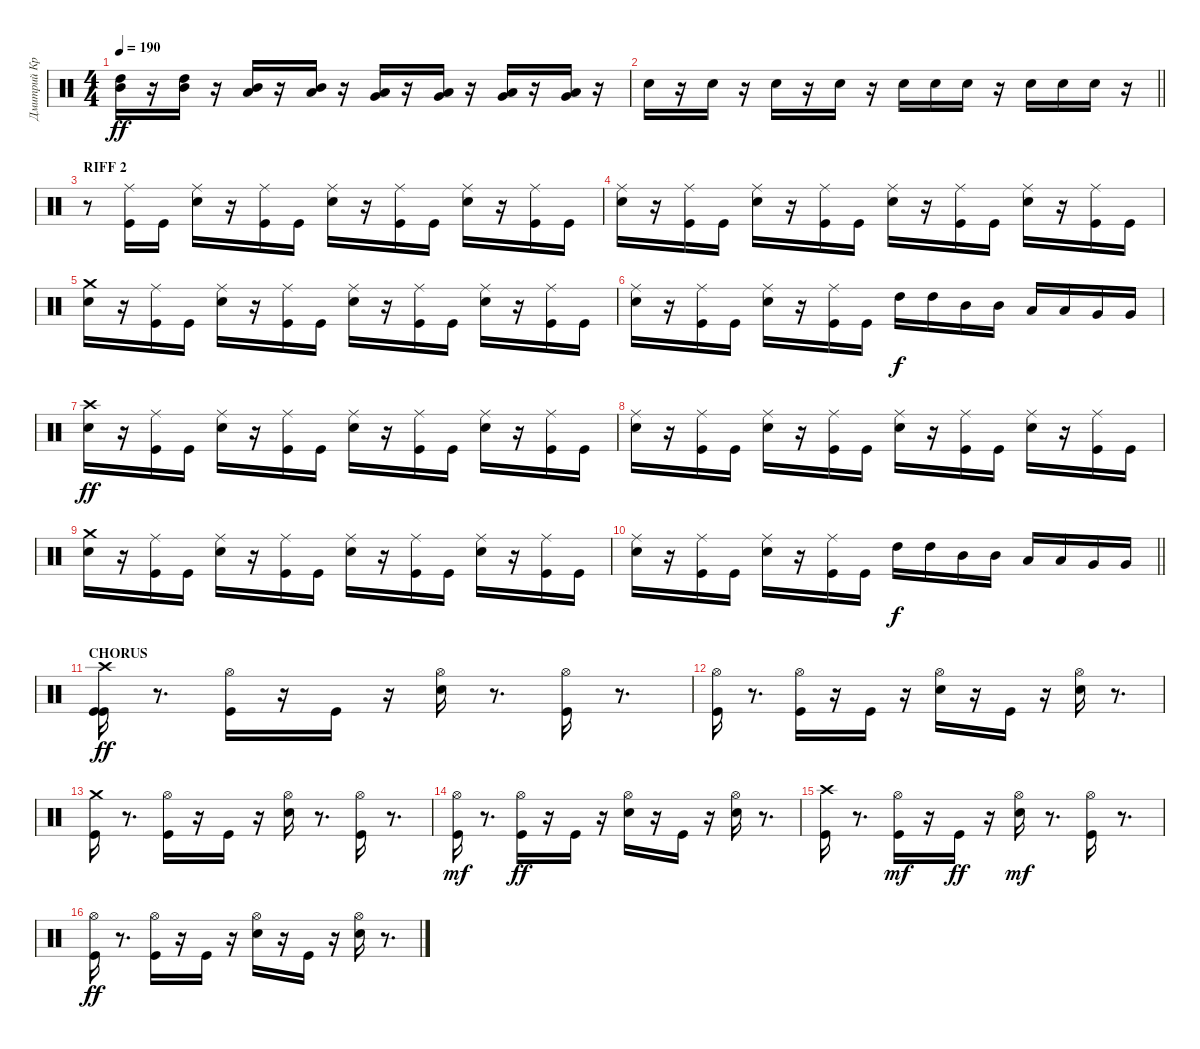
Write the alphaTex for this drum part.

\track ("Дмитрий Кривенков" "Дмитрий Кр") {instrument percussion}
\staff {score}
\articulation defaults
\ts (4 4)
\tempo 190
\clef neutral
\ks c
("Mid Tom (hit)" "High Tom (hit)").16{dy ff} r.16 ("Mid Tom (hit)" "High Tom (hit)").16 r.16 ("Low Tom (hit)" "Mid Tom (hit)").16 r.16 ("Mid Tom (hit)" "Low Tom (hit)").16 r.16 ("Very Low Tom (hit)" "Low Tom (hit)").16 r.16 ("Very Low Tom (hit)" "Low Tom (hit)").16 r.16 ("Very Low Tom (hit)" "Low Tom (hit)").16 r.16 ("Very Low Tom (hit)" "Low Tom (hit)").16 r.16 |
\barLineRight lightlight "Snare (hit) 2".16
r.16 "Snare (hit) 2".16 r.16 "Snare (hit) 2".16 r.16 "Snare (hit) 2".16 r.16 "Snare (hit) 2".16 "Snare (hit) 2".16 "Snare (hit) 2".16 r.16 "Snare (hit) 2".16 "Snare (hit) 2".16 "Snare (hit) 2".16 r.16 |
\section ("" "RIFF 2")
r.8 ("Ride (middle)" "Kick (hit)").16 "Kick (hit)".16 ("Ride (middle)" "Snare (hit) 2").16 r.16 ("Ride (middle)" "Kick (hit)").16 "Kick (hit)".16 ("Ride (middle)" "Snare (hit) 2").16 r.16 ("Kick (hit)" "Ride (middle)").16 "Kick (hit)".16 ("Ride (middle)" "Snare (hit) 2").16 r.16 ("Ride (middle)" "Kick (hit)").16 "Kick (hit)".16 |
("Snare (hit) 2" "Ride (middle)").16 r.16 ("Ride (middle)" "Kick (hit)").16 "Kick (hit)".16 ("Ride (middle)" "Snare (hit) 2").16 r.16 ("Ride (middle)" "Kick (hit)").16 "Kick (hit)".16 ("Ride (middle)" "Snare (hit) 2").16 r.16 ("Ride (middle)" "Kick (hit)").16 "Kick (hit)".16 ("Ride (middle)" "Snare (hit) 2").16 r.16 ("Ride (middle)" "Kick (hit)").16 "Kick (hit)".16 |
("Crash medium (hit)" "Snare (hit) 2").16 r.16 ("Ride (middle)" "Kick (hit)").16 "Kick (hit)".16 ("Ride (middle)" "Snare (hit) 2").16 r.16 ("Ride (middle)" "Kick (hit)").16 "Kick (hit)".16 ("Ride (middle)" "Snare (hit) 2").16 r.16 ("Ride (middle)" "Kick (hit)").16 "Kick (hit)".16 ("Ride (middle)" "Snare (hit) 2").16 r.16 ("Ride (middle)" "Kick (hit)").16 "Kick (hit)".16 |
("Ride (middle)" "Snare (hit) 2").16 r.16 ("Ride (middle)" "Kick (hit)").16 "Kick (hit)".16 ("Ride (middle)" "Snare (hit) 2").16 r.16 ("Ride (middle)" "Kick (hit)").16 "Kick (hit)".16 "High Tom (hit)".16{dy f} "High Tom (hit)".16 "Mid Tom (hit)".16 "Mid Tom (hit)".16 "Low Tom (hit)".16 "Low Tom (hit)".16 "Very Low Tom (hit)".16 "Very Low Tom (hit)".16 |
("Snare (hit) 2" "Crash high (hit)").16{dy ff} r.16 ("Ride (middle)" "Kick (hit)").16 "Kick (hit)".16 ("Ride (middle)" "Snare (hit) 2").16 r.16 ("Ride (middle)" "Kick (hit)").16 "Kick (hit)".16 ("Ride (middle)" "Snare (hit) 2").16 r.16 ("Kick (hit)" "Ride (middle)").16 "Kick (hit)".16 ("Ride (middle)" "Snare (hit) 2").16 r.16 ("Ride (middle)" "Kick (hit)").16 "Kick (hit)".16 |
("Snare (hit) 2" "Ride (middle)").16 r.16 ("Ride (middle)" "Kick (hit)").16 "Kick (hit)".16 ("Ride (middle)" "Snare (hit) 2").16 r.16 ("Ride (middle)" "Kick (hit)").16 "Kick (hit)".16 ("Ride (middle)" "Snare (hit) 2").16 r.16 ("Ride (middle)" "Kick (hit)").16 "Kick (hit)".16 ("Ride (middle)" "Snare (hit) 2").16 r.16 ("Ride (middle)" "Kick (hit)").16 "Kick (hit)".16 |
("Crash medium (hit)" "Snare (hit) 2").16 r.16 ("Ride (middle)" "Kick (hit)").16 "Kick (hit)".16 ("Ride (middle)" "Snare (hit) 2").16 r.16 ("Ride (middle)" "Kick (hit)").16 "Kick (hit)".16 ("Ride (middle)" "Snare (hit) 2").16 r.16 ("Ride (middle)" "Kick (hit)").16 "Kick (hit)".16 ("Ride (middle)" "Snare (hit) 2").16 r.16 ("Ride (middle)" "Kick (hit)").16 "Kick (hit)".16 |
\barLineRight lightlight
("Ride (middle)" "Snare (hit) 2").16 r.16 ("Ride (middle)" "Kick (hit)").16 "Kick (hit)".16 ("Ride (middle)" "Snare (hit) 2").16 r.16 ("Ride (middle)" "Kick (hit)").16 "Kick (hit)".16 "High Tom (hit)".16{dy f} "High Tom (hit)".16 "Mid Tom (hit)".16 "Mid Tom (hit)".16 "Low Tom (hit)".16 "Low Tom (hit)".16 "Very Low Tom (hit)".16 "Very Low Tom (hit)".16 |
\section ("" "CHORUS")
("Kick (hit)" "Crash high (hit)" "Kick (hit)").16{dy ff} r.8{d} ("Hi-Hat (open)" "Kick (hit)").16 r.16 "Kick (hit)".16 r.16 ("Hi-Hat (open)" "Snare (hit) 2").16 r.8{d} ("Hi-Hat (open)" "Kick (hit)").16 r.8{d} |
("Hi-Hat (open)" "Kick (hit)").16 r.8{d} ("Hi-Hat (open)" "Kick (hit)").16 r.16 "Kick (hit)".16 r.16 ("Hi-Hat (open)" "Snare (hit) 2").16 r.16 "Kick (hit)".16 r.16 ("Hi-Hat (open)" "Snare (hit) 2").16 r.8{d} |
("Kick (hit)" "Crash medium (hit)").16 r.8{d} ("Hi-Hat (open)" "Kick (hit)").16 r.16 "Kick (hit)".16 r.16 ("Hi-Hat (open)" "Snare (hit) 2").16 r.8{d} ("Hi-Hat (open)" "Kick (hit)").16 r.8{d} |
("Kick (hit)" "Hi-Hat (open)").16{dy mf} r.8{d} ("Hi-Hat (open)" "Kick (hit)").16{dy ff} r.16 "Kick (hit)".16 r.16 ("Hi-Hat (open)" "Snare (hit) 2").16 r.16 "Kick (hit)".16 r.16 ("Hi-Hat (open)" "Snare (hit) 2").16 r.8{d} |
("Crash high (hit)" "Kick (hit)").16 r.8{d} ("Kick (hit)" "Hi-Hat (open)").16{dy mf} r.16 "Kick (hit)".16{dy ff} r.16 ("Snare (hit) 2" "Hi-Hat (open)").16{dy mf} r.8{d} ("Kick (hit)" "Hi-Hat (open)").16 r.8{d} |
("Hi-Hat (open)" "Kick (hit)").16{dy ff} r.8{d} ("Hi-Hat (open)" "Kick (hit)").16 r.16 "Kick (hit)".16 r.16 ("Hi-Hat (open)" "Snare (hit) 2").16 r.16 "Kick (hit)".16 r.16 ("Hi-Hat (open)" "Snare (hit) 2").16 r.8{d}
